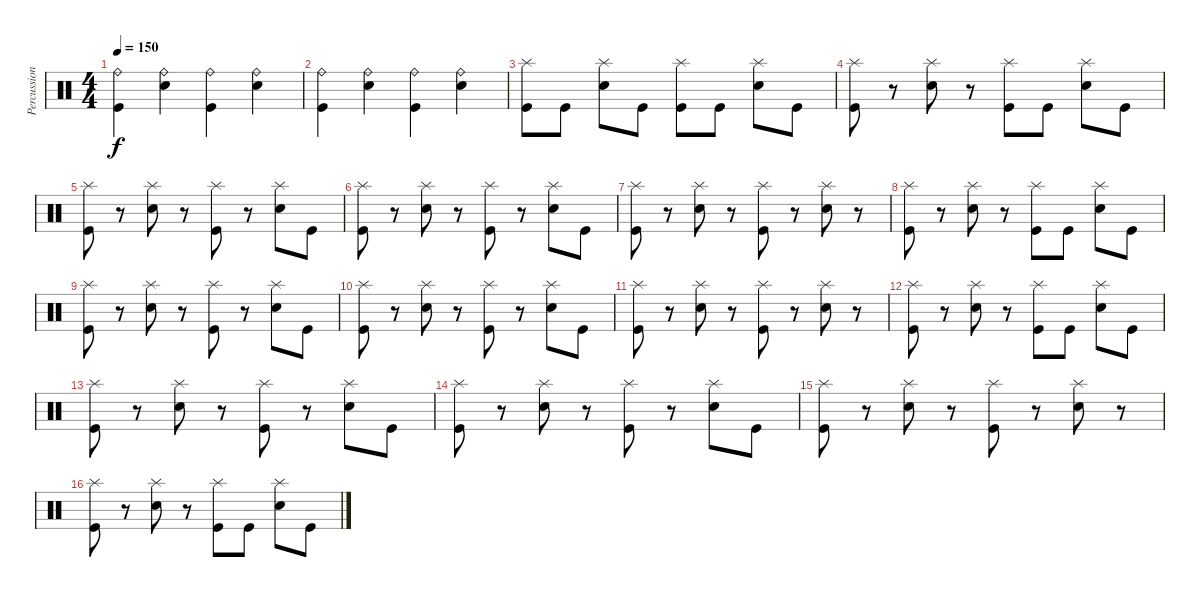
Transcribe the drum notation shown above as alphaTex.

\track ("Percussions" "Percussion") {instrument percussion}
\staff {score}
\articulation defaults
\ts (4 4)
\tempo 150
\clef neutral
\ks c
("Kick (hit)" "Ride (bell)").4{dy f} ("Electric Snare (hit)" "Ride (bell)").4 ("Kick (hit)" "Ride (bell)").4 ("Electric Snare (hit)" "Ride (bell)").4 |
("Kick (hit)" "Ride (bell)").4 ("Electric Snare (hit)" "Ride (bell)").4 ("Kick (hit)" "Ride (bell)").4 ("Electric Snare (hit)" "Ride (bell)").4 |
("Kick (hit)" "Splash (hit)").8 "Kick (hit)".8 ("Electric Snare (hit)" "Splash (hit)").8 "Kick (hit)".8 ("Kick (hit)" "Splash (hit)").8 "Kick (hit)".8 ("Electric Snare (hit)" "Splash (hit)").8 "Kick (hit)".8 |
("Kick (hit)" "Splash (hit)").8 r.8 ("Electric Snare (hit)" "Splash (hit)").8 r.8 ("Kick (hit)" "Splash (hit)").8 "Kick (hit)".8 ("Electric Snare (hit)" "Splash (hit)").8 "Kick (hit)".8 |
("Kick (hit)" "Splash (hit)").8 r.8 ("Electric Snare (hit)" "Splash (hit)").8 r.8 ("Kick (hit)" "Splash (hit)").8 r.8 ("Electric Snare (hit)" "Splash (hit)").8 "Kick (hit)".8 |
("Kick (hit)" "Splash (hit)").8 r.8 ("Electric Snare (hit)" "Splash (hit)").8 r.8 ("Kick (hit)" "Splash (hit)").8 r.8 ("Electric Snare (hit)" "Splash (hit)").8 "Kick (hit)".8 |
("Kick (hit)" "Splash (hit)").8 r.8 ("Electric Snare (hit)" "Splash (hit)").8 r.8 ("Kick (hit)" "Splash (hit)").8 r.8 ("Electric Snare (hit)" "Splash (hit)").8 r.8 |
("Kick (hit)" "Splash (hit)").8 r.8 ("Electric Snare (hit)" "Splash (hit)").8 r.8 ("Kick (hit)" "Splash (hit)").8 "Kick (hit)".8 ("Electric Snare (hit)" "Splash (hit)").8 "Kick (hit)".8 |
("Kick (hit)" "Splash (hit)").8 r.8 ("Electric Snare (hit)" "Splash (hit)").8 r.8 ("Kick (hit)" "Splash (hit)").8 r.8 ("Electric Snare (hit)" "Splash (hit)").8 "Kick (hit)".8 |
("Kick (hit)" "Splash (hit)").8 r.8 ("Electric Snare (hit)" "Splash (hit)").8 r.8 ("Kick (hit)" "Splash (hit)").8 r.8 ("Electric Snare (hit)" "Splash (hit)").8 "Kick (hit)".8 |
("Kick (hit)" "Splash (hit)").8 r.8 ("Electric Snare (hit)" "Splash (hit)").8 r.8 ("Kick (hit)" "Splash (hit)").8 r.8 ("Electric Snare (hit)" "Splash (hit)").8 r.8 |
("Kick (hit)" "Splash (hit)").8 r.8 ("Electric Snare (hit)" "Splash (hit)").8 r.8 ("Kick (hit)" "Splash (hit)").8 "Kick (hit)".8 ("Electric Snare (hit)" "Splash (hit)").8 "Kick (hit)".8 |
("Kick (hit)" "Splash (hit)").8 r.8 ("Electric Snare (hit)" "Splash (hit)").8 r.8 ("Kick (hit)" "Splash (hit)").8 r.8 ("Electric Snare (hit)" "Splash (hit)").8 "Kick (hit)".8 |
("Kick (hit)" "Splash (hit)").8 r.8 ("Electric Snare (hit)" "Splash (hit)").8 r.8 ("Kick (hit)" "Splash (hit)").8 r.8 ("Electric Snare (hit)" "Splash (hit)").8 "Kick (hit)".8 |
("Kick (hit)" "Splash (hit)").8 r.8 ("Electric Snare (hit)" "Splash (hit)").8 r.8 ("Kick (hit)" "Splash (hit)").8 r.8 ("Electric Snare (hit)" "Splash (hit)").8 r.8 |
("Kick (hit)" "Splash (hit)").8 r.8 ("Electric Snare (hit)" "Splash (hit)").8 r.8 ("Kick (hit)" "Splash (hit)").8 "Kick (hit)".8 ("Electric Snare (hit)" "Splash (hit)").8 "Kick (hit)".8
